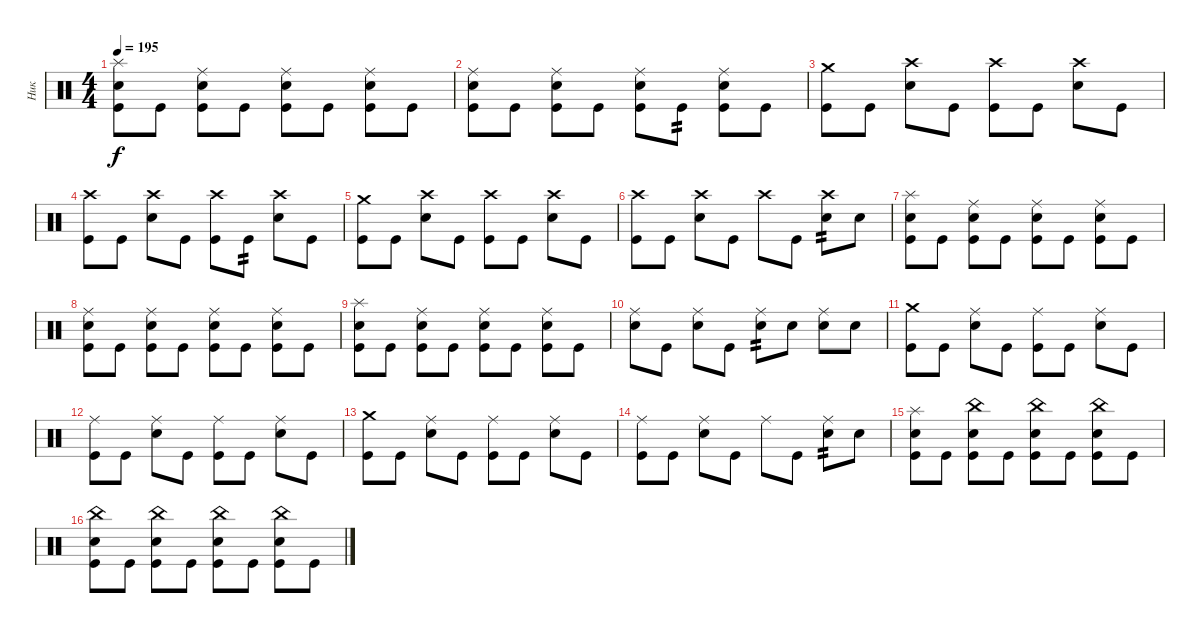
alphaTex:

\track ("Ник" "Ник") {instrument percussion}
\staff {score}
\articulation defaults
\ts (4 4)
\tempo 195
\clef neutral
\ks c
("Splash (hit)" "Snare (hit) 2" "Kick (hit)").8{dy f} "Kick (hit)".8 ("Ride (middle)" "Snare (hit) 2" "Kick (hit)").8 "Kick (hit)".8 ("Ride (middle)" "Snare (hit) 2" "Kick (hit)").8 "Kick (hit)".8 ("Ride (middle)" "Snare (hit) 2" "Kick (hit)").8 "Kick (hit)".8 |
("Ride (middle)" "Snare (hit) 2" "Kick (hit)").8 "Kick (hit)".8 ("Ride (middle)" "Snare (hit) 2" "Kick (hit)").8 "Kick (hit)".8 ("Ride (middle)" "Snare (hit) 2" "Kick (hit)").8 "Kick (hit)".8{tp 2} ("Ride (middle)" "Snare (hit) 2" "Kick (hit)").8 "Kick (hit)".8 |
("Crash medium (hit)" "Kick (hit)").8 "Kick (hit)".8 ("Crash high (hit)" "Snare (hit) 2").8 "Kick (hit)".8 ("Crash high (hit)" "Kick (hit)").8 "Kick (hit)".8 ("Crash high (hit)" "Snare (hit) 2").8 "Kick (hit)".8 |
("Crash high (hit)" "Kick (hit)").8 "Kick (hit)".8 ("Crash high (hit)" "Snare (hit) 2").8 "Kick (hit)".8 ("Crash high (hit)" "Kick (hit)").8 "Kick (hit)".8{tp 2} ("Crash high (hit)" "Snare (hit) 2").8 "Kick (hit)".8 |
("Crash medium (hit)" "Kick (hit)").8 "Kick (hit)".8 ("Crash high (hit)" "Snare (hit) 2").8 "Kick (hit)".8 ("Crash high (hit)" "Kick (hit)").8 "Kick (hit)".8 ("Crash high (hit)" "Snare (hit) 2").8 "Kick (hit)".8 |
("Crash high (hit)" "Kick (hit)").8 "Kick (hit)".8 ("Crash high (hit)" "Snare (hit) 2").8 "Kick (hit)".8 "Crash high (hit)".8 "Kick (hit)".8 ("Crash high (hit)" "Snare (hit) 2").8{tp 2} "Snare (hit) 2".8 |
("Splash (hit)" "Snare (hit) 2" "Kick (hit)").8 "Kick (hit)".8 ("Ride (middle)" "Snare (hit) 2" "Kick (hit)").8 "Kick (hit)".8 ("Ride (middle)" "Snare (hit) 2" "Kick (hit)").8 "Kick (hit)".8 ("Ride (middle)" "Snare (hit) 2" "Kick (hit)").8 "Kick (hit)".8 |
("Ride (middle)" "Snare (hit) 2" "Kick (hit)").8 "Kick (hit)".8 ("Ride (middle)" "Snare (hit) 2" "Kick (hit)").8 "Kick (hit)".8 ("Ride (middle)" "Snare (hit) 2" "Kick (hit)").8 "Kick (hit)".8 ("Ride (middle)" "Snare (hit) 2" "Kick (hit)").8 "Kick (hit)".8 |
("Splash (hit)" "Snare (hit) 2" "Kick (hit)").8 "Kick (hit)".8 ("Ride (middle)" "Snare (hit) 2" "Kick (hit)").8 "Kick (hit)".8 ("Ride (middle)" "Snare (hit) 2" "Kick (hit)").8 "Kick (hit)".8 ("Ride (middle)" "Snare (hit) 2" "Kick (hit)").8 "Kick (hit)".8 |
("Ride (middle)" "Snare (hit) 2").8 "Kick (hit)".8 ("Ride (middle)" "Snare (hit) 2").8 "Kick (hit)".8 ("Ride (middle)" "Snare (hit) 2").8{tp 2} "Snare (hit) 2".8 ("Ride (middle)" "Snare (hit) 2").8 "Snare (hit) 2".8 |
("Crash medium (hit)" "Kick (hit)").8 "Kick (hit)".8 ("Ride (middle)" "Snare (hit) 2").8 "Kick (hit)".8 ("Ride (middle)" "Kick (hit)").8 "Kick (hit)".8 ("Ride (middle)" "Snare (hit) 2").8 "Kick (hit)".8 |
("Ride (middle)" "Kick (hit)").8 "Kick (hit)".8 ("Ride (middle)" "Snare (hit) 2").8 "Kick (hit)".8 ("Ride (middle)" "Kick (hit)").8 "Kick (hit)".8 ("Ride (middle)" "Snare (hit) 2").8 "Kick (hit)".8 |
("Crash medium (hit)" "Kick (hit)").8 "Kick (hit)".8 ("Ride (middle)" "Snare (hit) 2").8 "Kick (hit)".8 ("Ride (middle)" "Kick (hit)").8 "Kick (hit)".8 ("Ride (middle)" "Snare (hit) 2").8 "Kick (hit)".8 |
("Ride (middle)" "Kick (hit)").8 "Kick (hit)".8 ("Ride (middle)" "Snare (hit) 2").8 "Kick (hit)".8 "Ride (middle)".8 "Kick (hit)".8 ("Ride (middle)" "Snare (hit) 2").8{tp 2} "Snare (hit) 2".8 |
("Splash (hit)" "Snare (hit) 2" "Kick (hit)").8 "Kick (hit)".8 ("China (hit)" "Snare (hit) 2" "Kick (hit)").8 "Kick (hit)".8 ("China (hit)" "Snare (hit) 2" "Kick (hit)").8 "Kick (hit)".8 ("China (hit)" "Snare (hit) 2" "Kick (hit)").8 "Kick (hit)".8 |
("China (hit)" "Snare (hit) 2" "Kick (hit)").8 "Kick (hit)".8 ("China (hit)" "Snare (hit) 2" "Kick (hit)").8 "Kick (hit)".8 ("China (hit)" "Snare (hit) 2" "Kick (hit)").8 "Kick (hit)".8 ("China (hit)" "Snare (hit) 2" "Kick (hit)").8 "Kick (hit)".8
